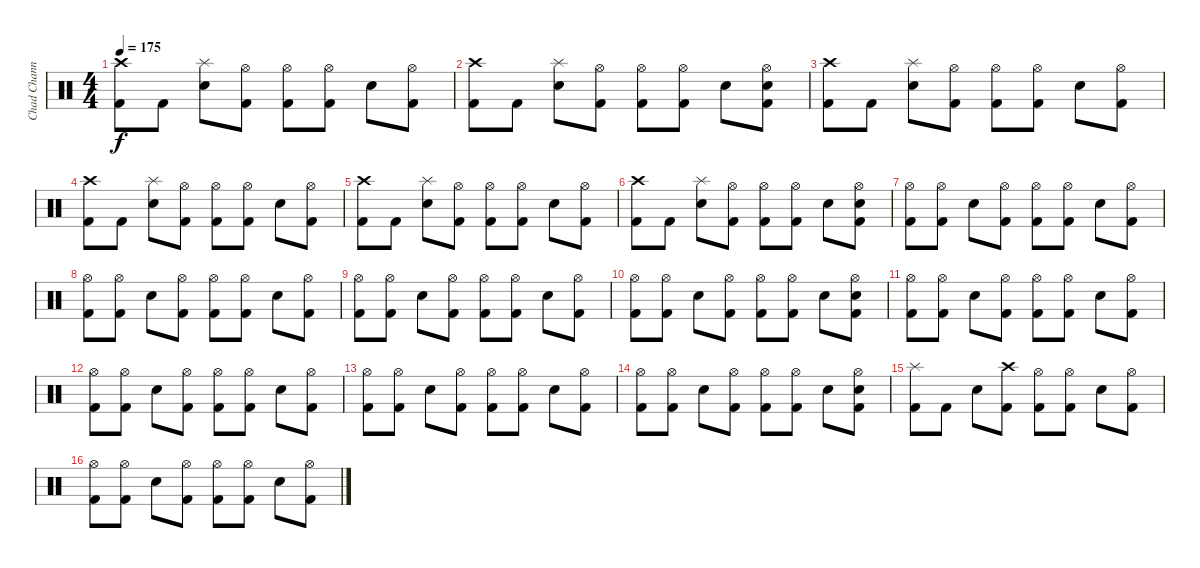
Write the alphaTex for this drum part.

\track ("Chad Channing" "Chad Chann") {instrument percussion}
\staff {score}
\articulation defaults
\ts (4 4)
\tempo 175
\clef neutral
\ks c
("Crash high (hit)" "Kick (hit) 2").8{dy f} "Kick (hit) 2".8 ("Splash (hit)" "Snare (hit) 2").8 ("Hi-Hat (open)" "Kick (hit) 2").8 ("Hi-Hat (open)" "Kick (hit) 2").8 ("Hi-Hat (open)" "Kick (hit) 2").8 "Snare (hit) 2".8 ("Hi-Hat (open)" "Kick (hit) 2").8 |
("Crash high (hit)" "Kick (hit) 2").8 "Kick (hit) 2".8 ("Splash (hit)" "Snare (hit) 2").8 ("Hi-Hat (open)" "Kick (hit) 2").8 ("Hi-Hat (open)" "Kick (hit) 2").8 ("Hi-Hat (open)" "Kick (hit) 2").8 "Snare (hit) 2".8 ("Hi-Hat (open)" "Snare (hit) 2" "Kick (hit) 2").8 |
("Crash high (hit)" "Kick (hit) 2").8 "Kick (hit) 2".8 ("Splash (hit)" "Snare (hit) 2").8 ("Hi-Hat (open)" "Kick (hit) 2").8 ("Hi-Hat (open)" "Kick (hit) 2").8 ("Hi-Hat (open)" "Kick (hit) 2").8 "Snare (hit) 2".8 ("Hi-Hat (open)" "Kick (hit) 2").8 |
("Crash high (hit)" "Kick (hit) 2").8 "Kick (hit) 2".8 ("Splash (hit)" "Snare (hit) 2").8 ("Hi-Hat (open)" "Kick (hit) 2").8 ("Hi-Hat (open)" "Kick (hit) 2").8 ("Hi-Hat (open)" "Kick (hit) 2").8 "Snare (hit) 2".8 ("Hi-Hat (open)" "Kick (hit) 2").8 |
("Crash high (hit)" "Kick (hit) 2").8 "Kick (hit) 2".8 ("Splash (hit)" "Snare (hit) 2").8 ("Hi-Hat (open)" "Kick (hit) 2").8 ("Hi-Hat (open)" "Kick (hit) 2").8 ("Hi-Hat (open)" "Kick (hit) 2").8 "Snare (hit) 2".8 ("Hi-Hat (open)" "Kick (hit) 2").8 |
("Crash high (hit)" "Kick (hit) 2").8 "Kick (hit) 2".8 ("Splash (hit)" "Snare (hit) 2").8 ("Hi-Hat (open)" "Kick (hit) 2").8 ("Hi-Hat (open)" "Kick (hit) 2").8 ("Hi-Hat (open)" "Kick (hit) 2").8 "Snare (hit) 2".8 ("Hi-Hat (open)" "Snare (hit) 2" "Kick (hit) 2").8 |
("Hi-Hat (open)" "Kick (hit) 2").8 ("Hi-Hat (open)" "Kick (hit) 2").8 "Snare (hit) 2".8 ("Hi-Hat (open)" "Kick (hit) 2").8 ("Hi-Hat (open)" "Kick (hit) 2").8 ("Hi-Hat (open)" "Kick (hit) 2").8 "Snare (hit) 2".8 ("Hi-Hat (open)" "Kick (hit) 2").8 |
("Hi-Hat (open)" "Kick (hit) 2").8 ("Hi-Hat (open)" "Kick (hit) 2").8 "Snare (hit) 2".8 ("Hi-Hat (open)" "Kick (hit) 2").8 ("Hi-Hat (open)" "Kick (hit) 2").8 ("Hi-Hat (open)" "Kick (hit) 2").8 "Snare (hit) 2".8 ("Hi-Hat (open)" "Kick (hit) 2").8 |
("Hi-Hat (open)" "Kick (hit) 2").8 ("Hi-Hat (open)" "Kick (hit) 2").8 "Snare (hit) 2".8 ("Hi-Hat (open)" "Kick (hit) 2").8 ("Hi-Hat (open)" "Kick (hit) 2").8 ("Hi-Hat (open)" "Kick (hit) 2").8 "Snare (hit) 2".8 ("Hi-Hat (open)" "Kick (hit) 2").8 |
("Hi-Hat (open)" "Kick (hit) 2").8 ("Hi-Hat (open)" "Kick (hit) 2").8 "Snare (hit) 2".8 ("Hi-Hat (open)" "Kick (hit) 2").8 ("Hi-Hat (open)" "Kick (hit) 2").8 ("Hi-Hat (open)" "Kick (hit) 2").8 "Snare (hit) 2".8 ("Hi-Hat (open)" "Snare (hit) 2" "Kick (hit) 2").8 |
("Hi-Hat (open)" "Kick (hit) 2").8 ("Hi-Hat (open)" "Kick (hit) 2").8 "Snare (hit) 2".8 ("Hi-Hat (open)" "Kick (hit) 2").8 ("Hi-Hat (open)" "Kick (hit) 2").8 ("Hi-Hat (open)" "Kick (hit) 2").8 "Snare (hit) 2".8 ("Hi-Hat (open)" "Kick (hit) 2").8 |
("Hi-Hat (open)" "Kick (hit) 2").8 ("Hi-Hat (open)" "Kick (hit) 2").8 "Snare (hit) 2".8 ("Hi-Hat (open)" "Kick (hit) 2").8 ("Hi-Hat (open)" "Kick (hit) 2").8 ("Hi-Hat (open)" "Kick (hit) 2").8 "Snare (hit) 2".8 ("Hi-Hat (open)" "Kick (hit) 2").8 |
("Hi-Hat (open)" "Kick (hit) 2").8 ("Hi-Hat (open)" "Kick (hit) 2").8 "Snare (hit) 2".8 ("Hi-Hat (open)" "Kick (hit) 2").8 ("Hi-Hat (open)" "Kick (hit) 2").8 ("Hi-Hat (open)" "Kick (hit) 2").8 "Snare (hit) 2".8 ("Hi-Hat (open)" "Kick (hit) 2").8 |
("Hi-Hat (open)" "Kick (hit) 2").8 ("Hi-Hat (open)" "Kick (hit) 2").8 "Snare (hit) 2".8 ("Hi-Hat (open)" "Kick (hit) 2").8 ("Hi-Hat (open)" "Kick (hit) 2").8 ("Hi-Hat (open)" "Kick (hit) 2").8 "Snare (hit) 2".8 ("Hi-Hat (open)" "Snare (hit) 2" "Kick (hit) 2").8 |
("Splash (hit)" "Kick (hit) 2").8 "Kick (hit) 2".8 "Snare (hit) 2".8 ("Crash high (hit)" "Kick (hit) 2").8 ("Hi-Hat (open)" "Kick (hit) 2").8 ("Hi-Hat (open)" "Kick (hit) 2").8 "Snare (hit) 2".8 ("Hi-Hat (open)" "Kick (hit) 2").8 |
("Hi-Hat (open)" "Kick (hit) 2").8 ("Hi-Hat (open)" "Kick (hit) 2").8 "Snare (hit) 2".8 ("Hi-Hat (open)" "Kick (hit) 2").8 ("Hi-Hat (open)" "Kick (hit) 2").8 ("Hi-Hat (open)" "Kick (hit) 2").8 "Snare (hit) 2".8 ("Hi-Hat (open)" "Kick (hit) 2").8
